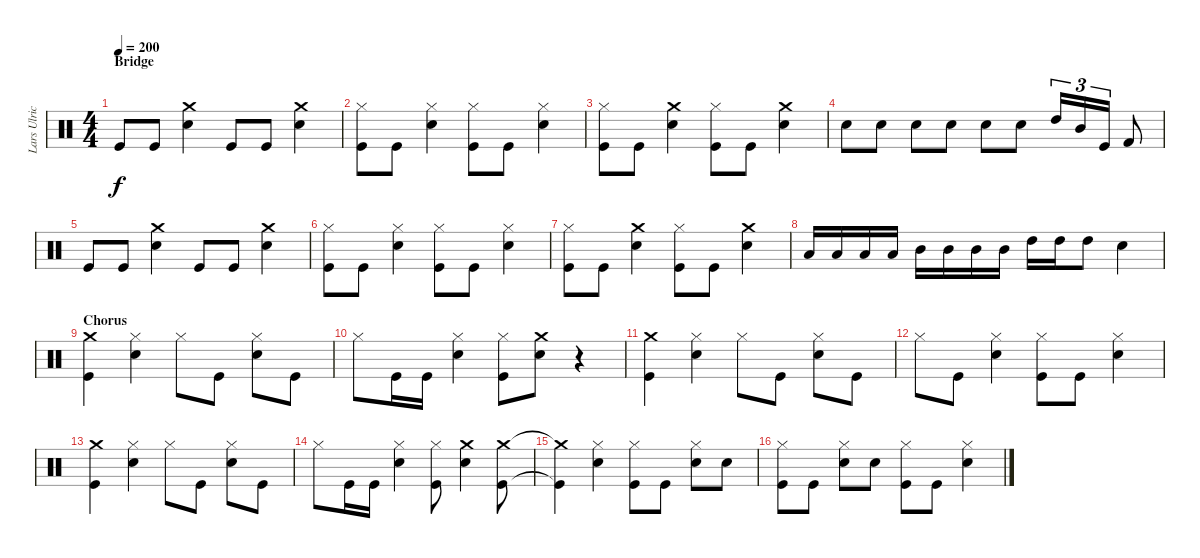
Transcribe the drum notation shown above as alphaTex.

\track ("Lars Ulrich (Drums)" "Lars Ulric") {instrument percussion}
\staff {score}
\articulation defaults
\ts (4 4)
\section ("" "Bridge")
\tempo 200
\clef neutral
\ks c "Kick (hit)".8{dy f} "Kick (hit)".8
("Crash medium (hit)" "Snare (hit) 2").4 "Kick (hit)".8 "Kick (hit)".8 ("Crash medium (hit)" "Snare (hit) 2").4 |
("Kick (hit)" "Hi-Hat (closed)").8 "Kick (hit)".8 ("Snare (hit) 2" "Hi-Hat (closed)").4 ("Kick (hit)" "Hi-Hat (closed)").8 "Kick (hit)".8 ("Snare (hit) 2" "Hi-Hat (closed)").4 |
("Kick (hit)" "Hi-Hat (closed)").8 "Kick (hit)".8 ("Snare (hit) 2" "Crash medium (hit)").4 ("Kick (hit)" "Hi-Hat (closed)").8 "Kick (hit)".8 ("Crash medium (hit)" "Snare (hit) 2").4 |
"Snare (hit) 2".8 "Snare (hit) 2".8 "Snare (hit) 2".8 "Snare (hit) 2".8 "Snare (hit) 2".8 "Snare (hit) 2".8 "High Tom (hit)".16{tu (3 2)} "Mid Tom (hit)".16{tu (3 2)} "Kick (hit)".16{tu (3 2)} "Kick (hit) 2".8 |
"Kick (hit)".8 "Kick (hit)".8 ("Crash medium (hit)" "Snare (hit) 2").4 "Kick (hit)".8 "Kick (hit)".8 ("Crash medium (hit)" "Snare (hit) 2").4 |
("Kick (hit)" "Hi-Hat (closed)").8 "Kick (hit)".8 ("Snare (hit) 2" "Hi-Hat (closed)").4 ("Kick (hit)" "Hi-Hat (closed)").8 "Kick (hit)".8 ("Snare (hit) 2" "Hi-Hat (closed)").4 |
("Kick (hit)" "Hi-Hat (closed)").8 "Kick (hit)".8 ("Snare (hit) 2" "Crash medium (hit)").4 ("Kick (hit)" "Hi-Hat (closed)").8 "Kick (hit)".8 ("Crash medium (hit)" "Snare (hit) 2").4 |
"Low Tom (hit)".16 "Low Tom (hit)".16 "Low Tom (hit)".16 "Low Tom (hit)".16 "Mid Tom (hit)".16 "Mid Tom (hit)".16 "Mid Tom (hit)".16 "Mid Tom (hit)".16 "High Tom (hit)".16 "High Tom (hit)".16 "High Tom (hit)".8 "Snare (hit) 2".4 |
\section ("" "Chorus")
("Kick (hit)" "Crash medium (hit)").4 ("Hi-Hat (closed)" "Snare (hit) 2").4 "Hi-Hat (closed)".8 "Kick (hit)".8 ("Snare (hit) 2" "Hi-Hat (closed)").8 "Kick (hit)".8 |
"Hi-Hat (closed)".8 "Kick (hit)".16 "Kick (hit)".16 ("Snare (hit) 2" "Hi-Hat (closed)").4 ("Kick (hit)" "Hi-Hat (closed)").8 ("Snare (hit) 2" "Crash medium (hit)").8 r.4 |
("Kick (hit)" "Crash medium (hit)").4 ("Hi-Hat (closed)" "Snare (hit) 2").4 "Hi-Hat (closed)".8 "Kick (hit)".8 ("Snare (hit) 2" "Hi-Hat (closed)").8 "Kick (hit)".8 |
"Hi-Hat (closed)".8 "Kick (hit)".8 ("Snare (hit) 2" "Hi-Hat (closed)").4 ("Hi-Hat (closed)" "Kick (hit)").8 "Kick (hit)".8 ("Snare (hit) 2" "Hi-Hat (closed)").4 |
("Kick (hit)" "Crash medium (hit)").4 ("Hi-Hat (closed)" "Snare (hit) 2").4 "Hi-Hat (closed)".8 "Kick (hit)".8 ("Snare (hit) 2" "Hi-Hat (closed)").8 "Kick (hit)".8 |
"Hi-Hat (closed)".8 "Kick (hit)".16 "Kick (hit)".16 ("Snare (hit) 2" "Hi-Hat (closed)").4 ("Kick (hit)" "Hi-Hat (closed)").8 ("Snare (hit) 2" "Crash medium (hit)").4 ("Kick (hit)" "Crash medium (hit)").8 |
("Kick (hit)"{t} "Crash medium (hit)"{t}).4 ("Hi-Hat (closed)" "Snare (hit) 2").4 ("Kick (hit)" "Hi-Hat (closed)").8 "Kick (hit)".8 ("Hi-Hat (closed)" "Snare (hit) 2").8 "Snare (hit) 2".8 |
("Kick (hit)" "Hi-Hat (closed)").8 "Kick (hit)".8 ("Hi-Hat (closed)" "Snare (hit) 2").8 "Snare (hit) 2".8 ("Kick (hit)" "Hi-Hat (closed)").8 "Kick (hit)".8 ("Snare (hit) 2" "Hi-Hat (closed)").4
